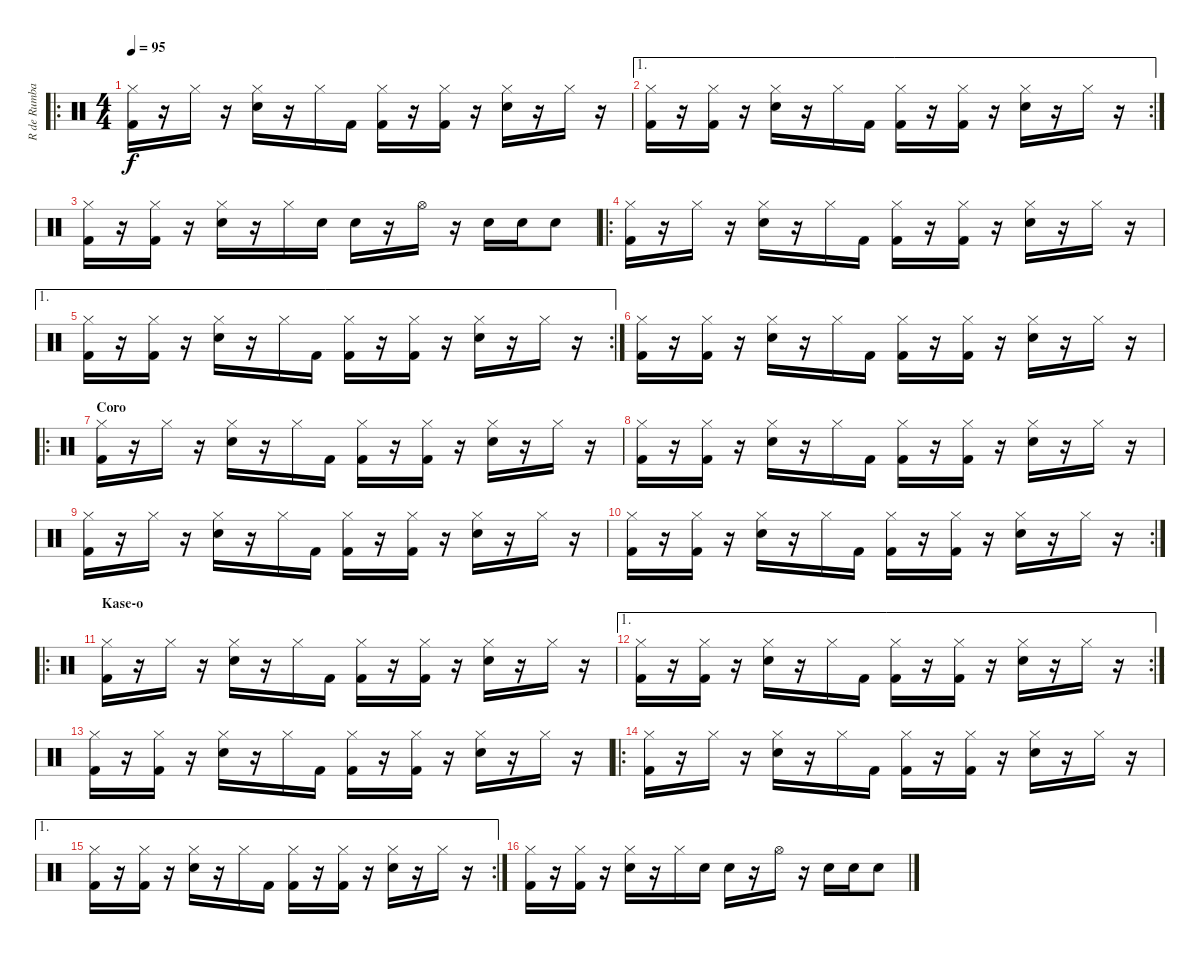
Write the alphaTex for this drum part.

\track ("R de Rumba" "R de Rumba") {instrument percussion}
\staff {score}
\articulation defaults
\ro
\ts (4 4)
\tempo 95
\clef neutral
\ks c
("Hi-Hat (closed)" "Kick (hit) 2").16{dy f} r.16 "Hi-Hat (closed)".16 r.16 ("Hi-Hat (closed)" "Snare (hit) 2").16 r.16 "Hi-Hat (closed)".16 "Kick (hit) 2".16 ("Hi-Hat (closed)" "Kick (hit) 2").16 r.16 ("Hi-Hat (closed)" "Kick (hit) 2").16 r.16 ("Hi-Hat (closed)" "Snare (hit) 2").16 r.16 "Hi-Hat (closed)".16 r.16 |
\ae 1
\rc 2
("Hi-Hat (closed)" "Kick (hit) 2").16 r.16 ("Hi-Hat (closed)" "Kick (hit) 2").16 r.16 ("Hi-Hat (closed)" "Snare (hit) 2").16 r.16 "Hi-Hat (closed)".16 "Kick (hit) 2".16 ("Hi-Hat (closed)" "Kick (hit) 2").16 r.16 ("Hi-Hat (closed)" "Kick (hit) 2").16 r.16 ("Hi-Hat (closed)" "Snare (hit) 2").16 r.16 "Hi-Hat (closed)".16 r.16 |
("Hi-Hat (closed)" "Kick (hit) 2").16 r.16 ("Hi-Hat (closed)" "Kick (hit) 2").16 r.16 ("Hi-Hat (closed)" "Snare (hit) 2").16 r.16 "Hi-Hat (closed)".16 "Snare (hit) 2".16 "Snare (hit) 2".16 r.16 "Hi-Hat (open)".16 r.16 "Snare (hit) 2".16 "Snare (hit) 2".16 "Snare (hit) 2".8 |
\ro
("Hi-Hat (closed)" "Kick (hit) 2").16 r.16 "Hi-Hat (closed)".16 r.16 ("Hi-Hat (closed)" "Snare (hit) 2").16 r.16 "Hi-Hat (closed)".16 "Kick (hit) 2".16 ("Hi-Hat (closed)" "Kick (hit) 2").16 r.16 ("Hi-Hat (closed)" "Kick (hit) 2").16 r.16 ("Hi-Hat (closed)" "Snare (hit) 2").16 r.16 "Hi-Hat (closed)".16 r.16 |
\ae 1
\rc 2
("Hi-Hat (closed)" "Kick (hit) 2").16 r.16 ("Hi-Hat (closed)" "Kick (hit) 2").16 r.16 ("Hi-Hat (closed)" "Snare (hit) 2").16 r.16 "Hi-Hat (closed)".16 "Kick (hit) 2".16 ("Hi-Hat (closed)" "Kick (hit) 2").16 r.16 ("Hi-Hat (closed)" "Kick (hit) 2").16 r.16 ("Hi-Hat (closed)" "Snare (hit) 2").16 r.16 "Hi-Hat (closed)".16 r.16 |
("Hi-Hat (closed)" "Kick (hit) 2").16 r.16 ("Hi-Hat (closed)" "Kick (hit) 2").16 r.16 ("Hi-Hat (closed)" "Snare (hit) 2").16 r.16 "Hi-Hat (closed)".16 "Kick (hit) 2".16 ("Hi-Hat (closed)" "Kick (hit) 2").16 r.16 ("Hi-Hat (closed)" "Kick (hit) 2").16 r.16 ("Hi-Hat (closed)" "Snare (hit) 2").16 r.16 "Hi-Hat (closed)".16 r.16 |
\ro
\section ("" "Coro")
("Hi-Hat (closed)" "Kick (hit) 2").16 r.16 "Hi-Hat (closed)".16 r.16 ("Hi-Hat (closed)" "Snare (hit) 2").16 r.16 "Hi-Hat (closed)".16 "Kick (hit) 2".16 ("Hi-Hat (closed)" "Kick (hit) 2").16 r.16 ("Hi-Hat (closed)" "Kick (hit) 2").16 r.16 ("Hi-Hat (closed)" "Snare (hit) 2").16 r.16 "Hi-Hat (closed)".16 r.16 |
("Hi-Hat (closed)" "Kick (hit) 2").16 r.16 ("Hi-Hat (closed)" "Kick (hit) 2").16 r.16 ("Hi-Hat (closed)" "Snare (hit) 2").16 r.16 "Hi-Hat (closed)".16 "Kick (hit) 2".16 ("Hi-Hat (closed)" "Kick (hit) 2").16 r.16 ("Hi-Hat (closed)" "Kick (hit) 2").16 r.16 ("Hi-Hat (closed)" "Snare (hit) 2").16 r.16 "Hi-Hat (closed)".16 r.16 |
("Hi-Hat (closed)" "Kick (hit) 2").16 r.16 "Hi-Hat (closed)".16 r.16 ("Hi-Hat (closed)" "Snare (hit) 2").16 r.16 "Hi-Hat (closed)".16 "Kick (hit) 2".16 ("Hi-Hat (closed)" "Kick (hit) 2").16 r.16 ("Hi-Hat (closed)" "Kick (hit) 2").16 r.16 ("Hi-Hat (closed)" "Snare (hit) 2").16 r.16 "Hi-Hat (closed)".16 r.16 |
\rc 2
("Hi-Hat (closed)" "Kick (hit) 2").16 r.16 ("Hi-Hat (closed)" "Kick (hit) 2").16 r.16 ("Hi-Hat (closed)" "Snare (hit) 2").16 r.16 "Hi-Hat (closed)".16 "Kick (hit) 2".16 ("Hi-Hat (closed)" "Kick (hit) 2").16 r.16 ("Hi-Hat (closed)" "Kick (hit) 2").16 r.16 ("Hi-Hat (closed)" "Snare (hit) 2").16 r.16 "Hi-Hat (closed)".16 r.16 |
\ro
\section ("" "Kase-o")
("Hi-Hat (closed)" "Kick (hit) 2").16 r.16 "Hi-Hat (closed)".16 r.16 ("Hi-Hat (closed)" "Snare (hit) 2").16 r.16 "Hi-Hat (closed)".16 "Kick (hit) 2".16 ("Hi-Hat (closed)" "Kick (hit) 2").16 r.16 ("Hi-Hat (closed)" "Kick (hit) 2").16 r.16 ("Hi-Hat (closed)" "Snare (hit) 2").16 r.16 "Hi-Hat (closed)".16 r.16 |
\ae 1
\rc 2
("Hi-Hat (closed)" "Kick (hit) 2").16 r.16 ("Hi-Hat (closed)" "Kick (hit) 2").16 r.16 ("Hi-Hat (closed)" "Snare (hit) 2").16 r.16 "Hi-Hat (closed)".16 "Kick (hit) 2".16 ("Hi-Hat (closed)" "Kick (hit) 2").16 r.16 ("Hi-Hat (closed)" "Kick (hit) 2").16 r.16 ("Hi-Hat (closed)" "Snare (hit) 2").16 r.16 "Hi-Hat (closed)".16 r.16 |
("Hi-Hat (closed)" "Kick (hit) 2").16 r.16 ("Hi-Hat (closed)" "Kick (hit) 2").16 r.16 ("Hi-Hat (closed)" "Snare (hit) 2").16 r.16 "Hi-Hat (closed)".16 "Kick (hit) 2".16 ("Hi-Hat (closed)" "Kick (hit) 2").16 r.16 ("Hi-Hat (closed)" "Kick (hit) 2").16 r.16 ("Hi-Hat (closed)" "Snare (hit) 2").16 r.16 "Hi-Hat (closed)".16 r.16 |
\ro
("Hi-Hat (closed)" "Kick (hit) 2").16 r.16 "Hi-Hat (closed)".16 r.16 ("Hi-Hat (closed)" "Snare (hit) 2").16 r.16 "Hi-Hat (closed)".16 "Kick (hit) 2".16 ("Hi-Hat (closed)" "Kick (hit) 2").16 r.16 ("Hi-Hat (closed)" "Kick (hit) 2").16 r.16 ("Hi-Hat (closed)" "Snare (hit) 2").16 r.16 "Hi-Hat (closed)".16 r.16 |
\ae 1
\rc 2
("Hi-Hat (closed)" "Kick (hit) 2").16 r.16 ("Hi-Hat (closed)" "Kick (hit) 2").16 r.16 ("Hi-Hat (closed)" "Snare (hit) 2").16 r.16 "Hi-Hat (closed)".16 "Kick (hit) 2".16 ("Hi-Hat (closed)" "Kick (hit) 2").16 r.16 ("Hi-Hat (closed)" "Kick (hit) 2").16 r.16 ("Hi-Hat (closed)" "Snare (hit) 2").16 r.16 "Hi-Hat (closed)".16 r.16 |
("Hi-Hat (closed)" "Kick (hit) 2").16 r.16 ("Hi-Hat (closed)" "Kick (hit) 2").16 r.16 ("Hi-Hat (closed)" "Snare (hit) 2").16 r.16 "Hi-Hat (closed)".16 "Snare (hit) 2".16 "Snare (hit) 2".16 r.16 "Hi-Hat (open)".16 r.16 "Snare (hit) 2".16 "Snare (hit) 2".16 "Snare (hit) 2".8
